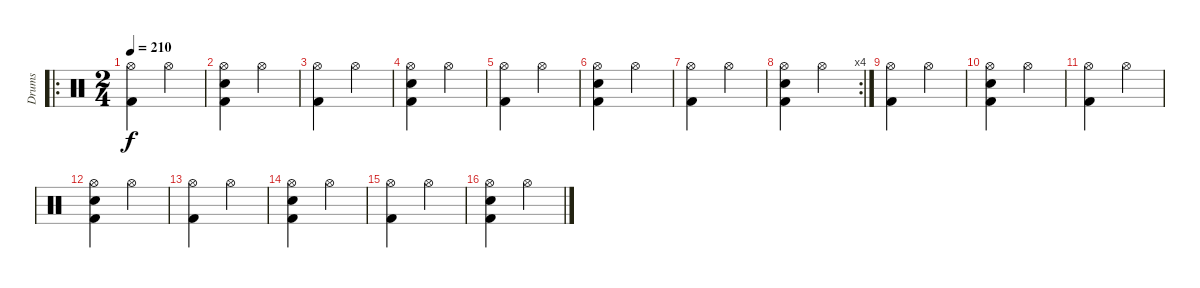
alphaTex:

\track ("Drums" "Drums") {instrument percussion}
\staff {score}
\articulation defaults
\ro
\ts (2 4)
\tempo 210
\clef neutral
\ks c
("Hi-Hat (open)" "Kick (hit) 2").4{dy f} "Hi-Hat (open)".4 |
("Hi-Hat (open)" "Electric Snare (hit)" "Kick (hit) 2").4 "Hi-Hat (open)".4 |
("Hi-Hat (open)" "Kick (hit) 2").4 "Hi-Hat (open)".4 |
("Hi-Hat (open)" "Electric Snare (hit)" "Kick (hit) 2").4 "Hi-Hat (open)".4 |
("Hi-Hat (open)" "Kick (hit) 2").4 "Hi-Hat (open)".4 |
("Hi-Hat (open)" "Electric Snare (hit)" "Kick (hit) 2").4 "Hi-Hat (open)".4 |
("Hi-Hat (open)" "Kick (hit) 2").4 "Hi-Hat (open)".4 |
\rc 4
("Hi-Hat (open)" "Electric Snare (hit)" "Kick (hit) 2").4 "Hi-Hat (open)".4 |
("Hi-Hat (open)" "Kick (hit) 2").4 "Hi-Hat (open)".4 |
("Hi-Hat (open)" "Electric Snare (hit)" "Kick (hit) 2").4 "Hi-Hat (open)".4 |
("Hi-Hat (open)" "Kick (hit) 2").4 "Hi-Hat (open)".4 |
("Hi-Hat (open)" "Electric Snare (hit)" "Kick (hit) 2").4 "Hi-Hat (open)".4 |
("Hi-Hat (open)" "Kick (hit) 2").4 "Hi-Hat (open)".4 |
("Hi-Hat (open)" "Electric Snare (hit)" "Kick (hit) 2").4 "Hi-Hat (open)".4 |
("Hi-Hat (open)" "Kick (hit) 2").4 "Hi-Hat (open)".4 |
("Hi-Hat (open)" "Electric Snare (hit)" "Kick (hit) 2").4 "Hi-Hat (open)".4
